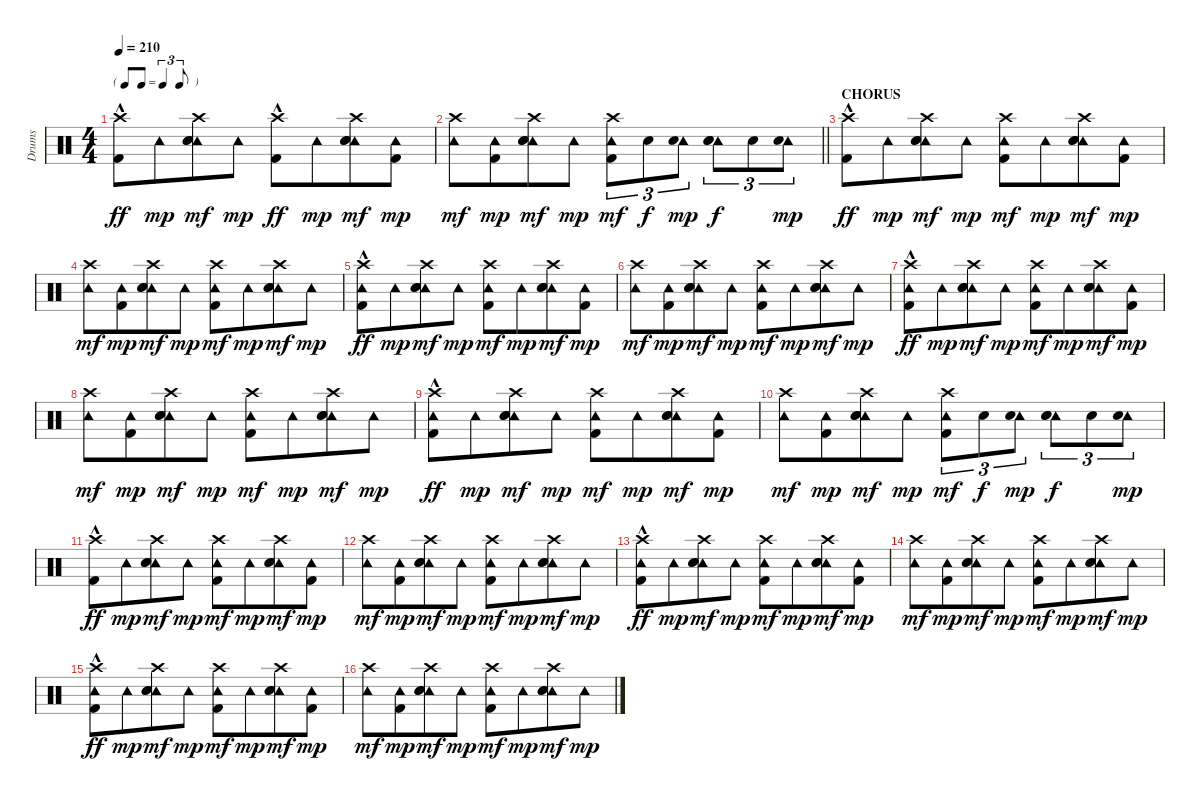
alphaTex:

\track ("Drums" "Drums") {instrument percussion}
\staff {score}
\articulation defaults
\ts (4 4)
\tf triplet8th
\tempo 210
\clef neutral
\ks c
("Crash high (hit)"{hac} "Kick (hit) 2").8{dy ff} "Tambourine (hit)".8{dy mp beam merge} ("Tambourine (hit)" "Crash high (hit)" "Hand Clap (hit)" "Electric Snare (hit)").8{dy mf} "Tambourine (hit)".8{dy mp} ("Crash high (hit)"{hac} "Kick (hit) 2").8{dy ff} "Tambourine (hit)".8{dy mp beam merge} ("Tambourine (hit)" "Crash high (hit)" "Hand Clap (hit)" "Electric Snare (hit)").8{dy mf} ("Tambourine (hit)" "Kick (hit) 2").8{dy mp} |
\barLineRight lightlight
("Tambourine (hit)" "Crash high (hit)").8{dy mf} ("Tambourine (hit)" "Kick (hit) 2").8{dy mp beam merge} ("Tambourine (hit)" "Crash high (hit)" "Hand Clap (hit)" "Electric Snare (hit)").8{dy mf} "Tambourine (hit)".8{dy mp} ("Tambourine (hit)" "Crash high (hit)" "Kick (hit) 2").8{tu (3 2) dy mf} "Electric Snare (hit)".8{tu (3 2) dy f} ("Tambourine (hit)" "Electric Snare (hit)").8{tu (3 2) dy mp} ("Tambourine (hit)" "Hand Clap (hit)" "Electric Snare (hit)").8{tu (3 2) dy f} "Electric Snare (hit)".8{tu (3 2)} ("Tambourine (hit)" "Electric Snare (hit)").8{tu (3 2) dy mp} |
\section ("" "CHORUS")
("Crash high (hit)"{hac} "Kick (hit) 2").8{dy ff} "Tambourine (hit)".8{dy mp beam merge} ("Tambourine (hit)" "Crash high (hit)" "Hand Clap (hit)" "Electric Snare (hit)").8{dy mf} "Tambourine (hit)".8{dy mp} ("Tambourine (hit)" "Crash high (hit)" "Kick (hit) 2").8{dy mf} "Tambourine (hit)".8{dy mp beam merge} ("Tambourine (hit)" "Crash high (hit)" "Hand Clap (hit)" "Electric Snare (hit)").8{dy mf} ("Tambourine (hit)" "Kick (hit) 2").8{dy mp} |
("Tambourine (hit)" "Crash high (hit)").8{dy mf} ("Tambourine (hit)" "Kick (hit) 2").8{dy mp beam merge} ("Tambourine (hit)" "Crash high (hit)" "Hand Clap (hit)" "Electric Snare (hit)").8{dy mf} "Tambourine (hit)".8{dy mp} ("Tambourine (hit)" "Crash high (hit)" "Kick (hit) 2").8{dy mf} "Tambourine (hit)".8{dy mp beam merge} ("Tambourine (hit)" "Crash high (hit)" "Hand Clap (hit)" "Electric Snare (hit)").8{dy mf} "Tambourine (hit)".8{dy mp} |
("Tambourine (hit)" "Crash high (hit)"{hac} "Kick (hit) 2").8{dy ff} "Tambourine (hit)".8{dy mp beam merge} ("Tambourine (hit)" "Crash high (hit)" "Hand Clap (hit)" "Electric Snare (hit)").8{dy mf} "Tambourine (hit)".8{dy mp} ("Tambourine (hit)" "Crash high (hit)" "Kick (hit) 2").8{dy mf} "Tambourine (hit)".8{dy mp beam merge} ("Tambourine (hit)" "Crash high (hit)" "Hand Clap (hit)" "Electric Snare (hit)").8{dy mf} ("Tambourine (hit)" "Kick (hit) 2").8{dy mp} |
("Tambourine (hit)" "Crash high (hit)").8{dy mf} ("Tambourine (hit)" "Kick (hit) 2").8{dy mp beam merge} ("Tambourine (hit)" "Crash high (hit)" "Hand Clap (hit)" "Electric Snare (hit)").8{dy mf} "Tambourine (hit)".8{dy mp} ("Tambourine (hit)" "Crash high (hit)" "Kick (hit) 2").8{dy mf} "Tambourine (hit)".8{dy mp beam merge} ("Tambourine (hit)" "Crash high (hit)" "Hand Clap (hit)" "Electric Snare (hit)").8{dy mf} "Tambourine (hit)".8{dy mp} |
("Tambourine (hit)" "Crash high (hit)"{hac} "Kick (hit) 2").8{dy ff} "Tambourine (hit)".8{dy mp beam merge} ("Tambourine (hit)" "Crash high (hit)" "Hand Clap (hit)" "Electric Snare (hit)").8{dy mf} "Tambourine (hit)".8{dy mp} ("Tambourine (hit)" "Crash high (hit)" "Kick (hit) 2").8{dy mf} "Tambourine (hit)".8{dy mp beam merge} ("Tambourine (hit)" "Crash high (hit)" "Hand Clap (hit)" "Electric Snare (hit)").8{dy mf} ("Tambourine (hit)" "Kick (hit) 2").8{dy mp} |
("Tambourine (hit)" "Crash high (hit)").8{dy mf} ("Tambourine (hit)" "Kick (hit) 2").8{dy mp beam merge} ("Tambourine (hit)" "Crash high (hit)" "Hand Clap (hit)" "Electric Snare (hit)").8{dy mf} "Tambourine (hit)".8{dy mp} ("Tambourine (hit)" "Crash high (hit)" "Kick (hit) 2").8{dy mf} "Tambourine (hit)".8{dy mp beam merge} ("Tambourine (hit)" "Crash high (hit)" "Hand Clap (hit)" "Electric Snare (hit)").8{dy mf} "Tambourine (hit)".8{dy mp} |
("Tambourine (hit)" "Crash high (hit)"{hac} "Kick (hit) 2").8{dy ff} "Tambourine (hit)".8{dy mp beam merge} ("Tambourine (hit)" "Crash high (hit)" "Hand Clap (hit)" "Electric Snare (hit)").8{dy mf} "Tambourine (hit)".8{dy mp} ("Tambourine (hit)" "Crash high (hit)" "Kick (hit) 2").8{dy mf} "Tambourine (hit)".8{dy mp beam merge} ("Tambourine (hit)" "Crash high (hit)" "Hand Clap (hit)" "Electric Snare (hit)").8{dy mf} ("Tambourine (hit)" "Kick (hit) 2").8{dy mp} |
("Tambourine (hit)" "Crash high (hit)").8{dy mf} ("Tambourine (hit)" "Kick (hit) 2").8{dy mp beam merge} ("Tambourine (hit)" "Crash high (hit)" "Hand Clap (hit)" "Electric Snare (hit)").8{dy mf} "Tambourine (hit)".8{dy mp} ("Tambourine (hit)" "Crash high (hit)" "Kick (hit) 2").8{tu (3 2) dy mf} "Electric Snare (hit)".8{tu (3 2) dy f} ("Tambourine (hit)" "Electric Snare (hit)").8{tu (3 2) dy mp} ("Tambourine (hit)" "Hand Clap (hit)" "Electric Snare (hit)").8{tu (3 2) dy f} "Electric Snare (hit)".8{tu (3 2)} ("Tambourine (hit)" "Electric Snare (hit)").8{tu (3 2) dy mp} |
("Crash high (hit)"{hac} "Kick (hit) 2").8{dy ff} "Tambourine (hit)".8{dy mp beam merge} ("Tambourine (hit)" "Crash high (hit)" "Hand Clap (hit)" "Electric Snare (hit)").8{dy mf} "Tambourine (hit)".8{dy mp} ("Tambourine (hit)" "Crash high (hit)" "Kick (hit) 2").8{dy mf} "Tambourine (hit)".8{dy mp beam merge} ("Tambourine (hit)" "Crash high (hit)" "Hand Clap (hit)" "Electric Snare (hit)").8{dy mf} ("Tambourine (hit)" "Kick (hit) 2").8{dy mp} |
("Tambourine (hit)" "Crash high (hit)").8{dy mf} ("Tambourine (hit)" "Kick (hit) 2").8{dy mp beam merge} ("Tambourine (hit)" "Crash high (hit)" "Hand Clap (hit)" "Electric Snare (hit)").8{dy mf} "Tambourine (hit)".8{dy mp} ("Tambourine (hit)" "Crash high (hit)" "Kick (hit) 2").8{dy mf} "Tambourine (hit)".8{dy mp beam merge} ("Tambourine (hit)" "Crash high (hit)" "Hand Clap (hit)" "Electric Snare (hit)").8{dy mf} "Tambourine (hit)".8{dy mp} |
("Tambourine (hit)" "Crash high (hit)"{hac} "Kick (hit) 2").8{dy ff} "Tambourine (hit)".8{dy mp beam merge} ("Tambourine (hit)" "Crash high (hit)" "Hand Clap (hit)" "Electric Snare (hit)").8{dy mf} "Tambourine (hit)".8{dy mp} ("Tambourine (hit)" "Crash high (hit)" "Kick (hit) 2").8{dy mf} "Tambourine (hit)".8{dy mp beam merge} ("Tambourine (hit)" "Crash high (hit)" "Hand Clap (hit)" "Electric Snare (hit)").8{dy mf} ("Tambourine (hit)" "Kick (hit) 2").8{dy mp} |
("Tambourine (hit)" "Crash high (hit)").8{dy mf} ("Tambourine (hit)" "Kick (hit) 2").8{dy mp beam merge} ("Tambourine (hit)" "Crash high (hit)" "Hand Clap (hit)" "Electric Snare (hit)").8{dy mf} "Tambourine (hit)".8{dy mp} ("Tambourine (hit)" "Crash high (hit)" "Kick (hit) 2").8{dy mf} "Tambourine (hit)".8{dy mp beam merge} ("Tambourine (hit)" "Crash high (hit)" "Hand Clap (hit)" "Electric Snare (hit)").8{dy mf} "Tambourine (hit)".8{dy mp} |
("Tambourine (hit)" "Crash high (hit)"{hac} "Kick (hit) 2").8{dy ff} "Tambourine (hit)".8{dy mp beam merge} ("Tambourine (hit)" "Crash high (hit)" "Hand Clap (hit)" "Electric Snare (hit)").8{dy mf} "Tambourine (hit)".8{dy mp} ("Tambourine (hit)" "Crash high (hit)" "Kick (hit) 2").8{dy mf} "Tambourine (hit)".8{dy mp beam merge} ("Tambourine (hit)" "Crash high (hit)" "Hand Clap (hit)" "Electric Snare (hit)").8{dy mf} ("Tambourine (hit)" "Kick (hit) 2").8{dy mp} |
("Tambourine (hit)" "Crash high (hit)").8{dy mf} ("Tambourine (hit)" "Kick (hit) 2").8{dy mp beam merge} ("Tambourine (hit)" "Crash high (hit)" "Hand Clap (hit)" "Electric Snare (hit)").8{dy mf} "Tambourine (hit)".8{dy mp} ("Tambourine (hit)" "Crash high (hit)" "Kick (hit) 2").8{dy mf} "Tambourine (hit)".8{dy mp beam merge} ("Tambourine (hit)" "Crash high (hit)" "Hand Clap (hit)" "Electric Snare (hit)").8{dy mf} "Tambourine (hit)".8{dy mp}
